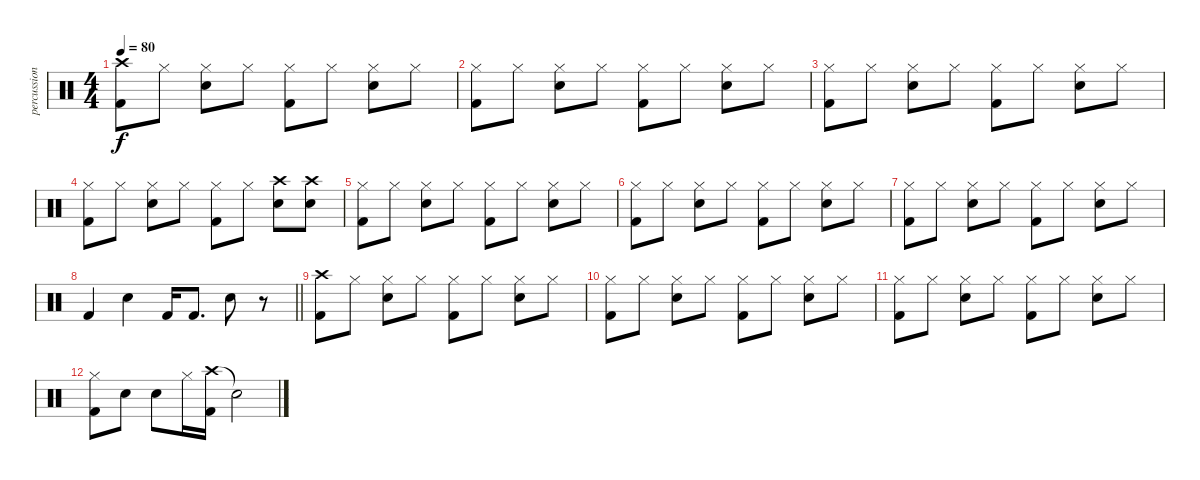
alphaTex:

\track ("percussion" "percussion") {instrument percussion}
\staff {score}
\articulation defaults
\ts (4 4)
\tempo 80
\clef neutral
\ks c
("Crash high (hit)" "Kick (hit) 2").8{dy f} "Hi-Hat (closed)".8 ("Snare (hit) 2" "Hi-Hat (closed)").8 "Hi-Hat (closed)".8 ("Hi-Hat (closed)" "Kick (hit) 2").8 "Hi-Hat (closed)".8 ("Snare (hit) 2" "Hi-Hat (closed)").8 "Hi-Hat (closed)".8 |
("Hi-Hat (closed)" "Kick (hit) 2").8 "Hi-Hat (closed)".8 ("Snare (hit) 2" "Hi-Hat (closed)").8 "Hi-Hat (closed)".8 ("Hi-Hat (closed)" "Kick (hit) 2").8 "Hi-Hat (closed)".8 ("Snare (hit) 2" "Hi-Hat (closed)").8 "Hi-Hat (closed)".8 |
("Hi-Hat (closed)" "Kick (hit) 2").8 "Hi-Hat (closed)".8 ("Snare (hit) 2" "Hi-Hat (closed)").8 "Hi-Hat (closed)".8 ("Hi-Hat (closed)" "Kick (hit) 2").8 "Hi-Hat (closed)".8 ("Snare (hit) 2" "Hi-Hat (closed)").8 "Hi-Hat (closed)".8 |
("Hi-Hat (closed)" "Kick (hit) 2").8 "Hi-Hat (closed)".8 ("Snare (hit) 2" "Hi-Hat (closed)").8 "Hi-Hat (closed)".8 ("Hi-Hat (closed)" "Kick (hit) 2").8 "Hi-Hat (closed)".8 ("Crash high (hit)" "Snare (hit) 2").8 ("Crash high (hit)" "Snare (hit) 2").8 |
("Hi-Hat (closed)" "Kick (hit) 2").8 "Hi-Hat (closed)".8 ("Snare (hit) 2" "Hi-Hat (closed)").8 "Hi-Hat (closed)".8 ("Hi-Hat (closed)" "Kick (hit) 2").8 "Hi-Hat (closed)".8 ("Snare (hit) 2" "Hi-Hat (closed)").8 "Hi-Hat (closed)".8 |
("Hi-Hat (closed)" "Kick (hit) 2").8 "Hi-Hat (closed)".8 ("Snare (hit) 2" "Hi-Hat (closed)").8 "Hi-Hat (closed)".8 ("Hi-Hat (closed)" "Kick (hit) 2").8 "Hi-Hat (closed)".8 ("Snare (hit) 2" "Hi-Hat (closed)").8 "Hi-Hat (closed)".8 |
("Hi-Hat (closed)" "Kick (hit) 2").8 "Hi-Hat (closed)".8 ("Snare (hit) 2" "Hi-Hat (closed)").8 "Hi-Hat (closed)".8 ("Hi-Hat (closed)" "Kick (hit) 2").8 "Hi-Hat (closed)".8 ("Snare (hit) 2" "Hi-Hat (closed)").8 "Hi-Hat (closed)".8 |
\barLineRight lightlight "Kick (hit) 2".4 "Snare (hit) 2".4 "Kick (hit) 2".16 "Kick (hit) 2".8{d} "Snare (hit) 2".8
r.8 |
("Crash high (hit)" "Kick (hit) 2").8 "Hi-Hat (closed)".8 ("Snare (hit) 2" "Hi-Hat (closed)").8 "Hi-Hat (closed)".8 ("Hi-Hat (closed)" "Kick (hit) 2").8 "Hi-Hat (closed)".8 ("Snare (hit) 2" "Hi-Hat (closed)").8 "Hi-Hat (closed)".8 |
("Hi-Hat (closed)" "Kick (hit) 2").8 "Hi-Hat (closed)".8 ("Snare (hit) 2" "Hi-Hat (closed)").8 "Hi-Hat (closed)".8 ("Hi-Hat (closed)" "Kick (hit) 2").8 "Hi-Hat (closed)".8 ("Snare (hit) 2" "Hi-Hat (closed)").8 "Hi-Hat (closed)".8 |
("Hi-Hat (closed)" "Kick (hit) 2").8 "Hi-Hat (closed)".8 ("Snare (hit) 2" "Hi-Hat (closed)").8 "Hi-Hat (closed)".8 ("Hi-Hat (closed)" "Kick (hit) 2").8 "Hi-Hat (closed)".8 ("Snare (hit) 2" "Hi-Hat (closed)").8 "Hi-Hat (closed)".8 |
("Hi-Hat (closed)" "Kick (hit) 2").8 "Snare (hit) 2".8 "Snare (hit) 2".8 "Hi-Hat (closed)".16 ("Crash high (hit)" "Kick (hit) 2").16 "Snare (hit)"{t}.2
